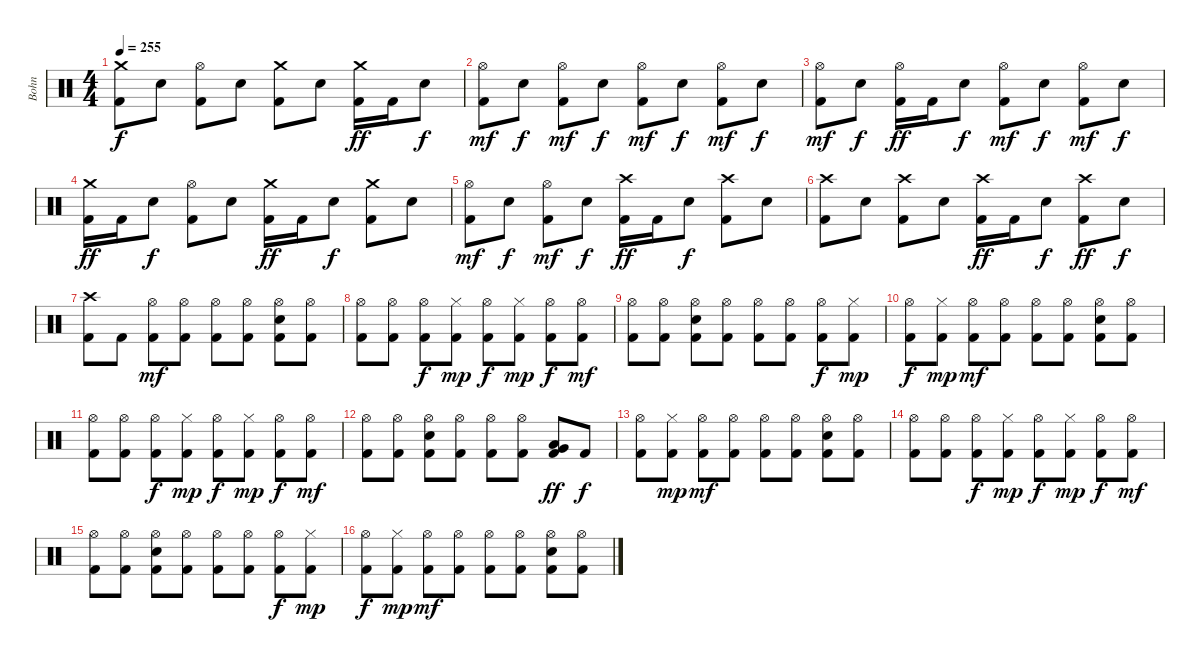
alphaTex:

\track ("Bohn" "Bohn") {instrument percussion}
\staff {score}
\articulation defaults
\ts (4 4)
\tempo 255
\clef neutral
\ks c
("Crash medium (hit)" "Kick (hit) 2").8{dy f} "Electric Snare (hit)".8 ("Hi-Hat (open)" "Kick (hit) 2").8 "Electric Snare (hit)".8 ("Crash medium (hit)" "Kick (hit) 2").8 "Electric Snare (hit)".8 ("Crash medium (hit)" "Kick (hit) 2").16{dy ff} "Kick (hit) 2".16 "Electric Snare (hit)".8{dy f} |
("Hi-Hat (open)" "Kick (hit) 2").8{dy mf} "Electric Snare (hit)".8{dy f} ("Hi-Hat (open)" "Kick (hit) 2").8{dy mf} "Electric Snare (hit)".8{dy f} ("Hi-Hat (open)" "Kick (hit) 2").8{dy mf} "Electric Snare (hit)".8{dy f} ("Hi-Hat (open)" "Kick (hit) 2").8{dy mf} "Electric Snare (hit)".8{dy f} |
("Hi-Hat (open)" "Kick (hit) 2").8{dy mf} "Electric Snare (hit)".8{dy f} ("Hi-Hat (open)" "Kick (hit) 2").16{dy ff} "Kick (hit) 2".16 "Electric Snare (hit)".8{dy f} ("Hi-Hat (open)" "Kick (hit) 2").8{dy mf} "Electric Snare (hit)".8{dy f} ("Hi-Hat (open)" "Kick (hit) 2").8{dy mf} "Electric Snare (hit)".8{dy f} |
("Crash medium (hit)" "Kick (hit) 2").16{dy ff} "Kick (hit) 2".16 "Electric Snare (hit)".8{dy f} ("Hi-Hat (open)" "Kick (hit) 2").8 "Electric Snare (hit)".8 ("Crash medium (hit)" "Kick (hit) 2").16{dy ff} "Kick (hit) 2".16 "Electric Snare (hit)".8{dy f} ("Crash medium (hit)" "Kick (hit) 2").8 "Electric Snare (hit)".8 |
("Hi-Hat (open)" "Kick (hit) 2").8{dy mf} "Electric Snare (hit)".8{dy f} ("Hi-Hat (open)" "Kick (hit) 2").8{dy mf} "Electric Snare (hit)".8{dy f} ("Crash high (hit)" "Kick (hit) 2").16{dy ff} "Kick (hit) 2".16 "Electric Snare (hit)".8{dy f} ("Crash high (hit)" "Kick (hit) 2").8 "Electric Snare (hit)".8 |
("Crash high (hit)" "Kick (hit) 2").8 "Electric Snare (hit)".8 ("Crash high (hit)" "Kick (hit) 2").8 "Electric Snare (hit)".8 ("Crash high (hit)" "Kick (hit) 2").16{dy ff} "Kick (hit) 2".16 "Electric Snare (hit)".8{dy f} ("Crash high (hit)" "Kick (hit) 2").8{dy ff} "Electric Snare (hit)".8{dy f} |
("Crash high (hit)" "Kick (hit) 2").8 "Kick (hit) 2".8 ("Hi-Hat (open)" "Kick (hit) 2").8{dy mf} ("Hi-Hat (open)" "Kick (hit) 2").8 ("Hi-Hat (open)" "Kick (hit) 2").8 ("Hi-Hat (open)" "Kick (hit) 2").8 ("Hi-Hat (open)" "Electric Snare (hit)" "Kick (hit) 2").8 ("Hi-Hat (open)" "Kick (hit) 2").8 |
("Hi-Hat (open)" "Kick (hit) 2").8 ("Hi-Hat (open)" "Kick (hit) 2").8 ("Hi-Hat (open)" "Kick (hit) 2").8{dy f} ("Hi-Hat (closed)" "Kick (hit) 2").8{dy mp} ("Hi-Hat (open)" "Kick (hit) 2").8{dy f} ("Hi-Hat (closed)" "Kick (hit) 2").8{dy mp} ("Hi-Hat (open)" "Kick (hit) 2").8{dy f} ("Hi-Hat (open)" "Kick (hit) 2").8{dy mf} |
("Hi-Hat (open)" "Kick (hit) 2").8 ("Hi-Hat (open)" "Kick (hit) 2").8 ("Hi-Hat (open)" "Electric Snare (hit)" "Kick (hit) 2").8 ("Hi-Hat (open)" "Kick (hit) 2").8 ("Hi-Hat (open)" "Kick (hit) 2").8 ("Hi-Hat (open)" "Kick (hit) 2").8 ("Hi-Hat (open)" "Kick (hit) 2").8{dy f} ("Hi-Hat (closed)" "Kick (hit) 2").8{dy mp} |
("Hi-Hat (open)" "Kick (hit) 2").8{dy f} ("Hi-Hat (closed)" "Kick (hit) 2").8{dy mp} ("Hi-Hat (open)" "Kick (hit) 2").8{dy mf} ("Hi-Hat (open)" "Kick (hit) 2").8 ("Hi-Hat (open)" "Kick (hit) 2").8 ("Hi-Hat (open)" "Kick (hit) 2").8 ("Hi-Hat (open)" "Electric Snare (hit)" "Kick (hit) 2").8 ("Hi-Hat (open)" "Kick (hit) 2").8 |
("Hi-Hat (open)" "Kick (hit) 2").8 ("Hi-Hat (open)" "Kick (hit) 2").8 ("Hi-Hat (open)" "Kick (hit) 2").8{dy f} ("Hi-Hat (closed)" "Kick (hit) 2").8{dy mp} ("Hi-Hat (open)" "Kick (hit) 2").8{dy f} ("Hi-Hat (closed)" "Kick (hit) 2").8{dy mp} ("Hi-Hat (open)" "Kick (hit) 2").8{dy f} ("Hi-Hat (open)" "Kick (hit) 2").8{dy mf} |
("Hi-Hat (open)" "Kick (hit) 2").8 ("Hi-Hat (open)" "Kick (hit) 2").8 ("Hi-Hat (open)" "Electric Snare (hit)" "Kick (hit) 2").8 ("Hi-Hat (open)" "Kick (hit) 2").8 ("Hi-Hat (open)" "Kick (hit) 2").8 ("Hi-Hat (open)" "Kick (hit) 2").8 ("Low Tom (hit)" "Very Low Tom (hit)" "Kick (hit) 2").8{dy ff} "Kick (hit) 2".8{dy f} |
("Hi-Hat (open)" "Kick (hit) 2").8 ("Hi-Hat (closed)" "Kick (hit) 2").8{dy mp} ("Hi-Hat (open)" "Kick (hit) 2").8{dy mf} ("Hi-Hat (open)" "Kick (hit) 2").8 ("Hi-Hat (open)" "Kick (hit) 2").8 ("Hi-Hat (open)" "Kick (hit) 2").8 ("Hi-Hat (open)" "Electric Snare (hit)" "Kick (hit) 2").8 ("Hi-Hat (open)" "Kick (hit) 2").8 |
("Hi-Hat (open)" "Kick (hit) 2").8 ("Hi-Hat (open)" "Kick (hit) 2").8 ("Hi-Hat (open)" "Kick (hit) 2").8{dy f} ("Hi-Hat (closed)" "Kick (hit) 2").8{dy mp} ("Hi-Hat (open)" "Kick (hit) 2").8{dy f} ("Hi-Hat (closed)" "Kick (hit) 2").8{dy mp} ("Hi-Hat (open)" "Kick (hit) 2").8{dy f} ("Hi-Hat (open)" "Kick (hit) 2").8{dy mf} |
("Hi-Hat (open)" "Kick (hit) 2").8 ("Hi-Hat (open)" "Kick (hit) 2").8 ("Hi-Hat (open)" "Electric Snare (hit)" "Kick (hit) 2").8 ("Hi-Hat (open)" "Kick (hit) 2").8 ("Hi-Hat (open)" "Kick (hit) 2").8 ("Hi-Hat (open)" "Kick (hit) 2").8 ("Hi-Hat (open)" "Kick (hit) 2").8{dy f} ("Hi-Hat (closed)" "Kick (hit) 2").8{dy mp} |
("Hi-Hat (open)" "Kick (hit) 2").8{dy f} ("Hi-Hat (closed)" "Kick (hit) 2").8{dy mp} ("Hi-Hat (open)" "Kick (hit) 2").8{dy mf} ("Hi-Hat (open)" "Kick (hit) 2").8 ("Hi-Hat (open)" "Kick (hit) 2").8 ("Hi-Hat (open)" "Kick (hit) 2").8 ("Hi-Hat (open)" "Electric Snare (hit)" "Kick (hit) 2").8 ("Hi-Hat (open)" "Kick (hit) 2").8
